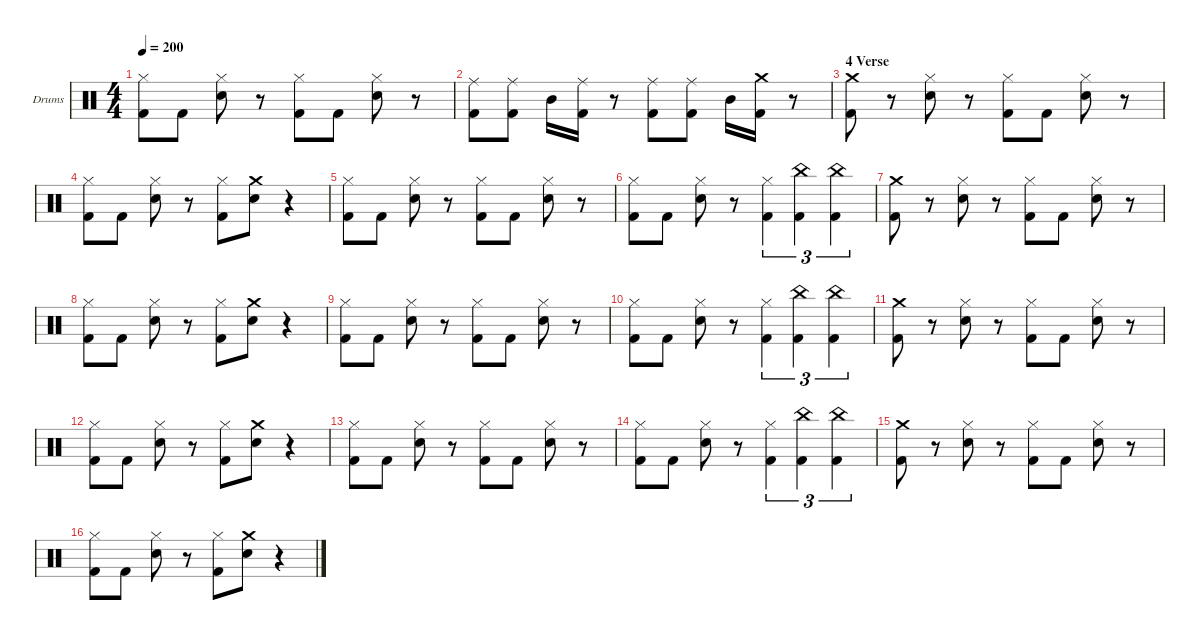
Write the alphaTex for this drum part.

\hideDynamics
\bracketExtendMode nobrackets
\firstSystemTrackNameOrientation horizontal
\otherSystemsTrackNameOrientation horizontal
\track ("Drumkit" "Drums") {instrument percussion}
\staff {score}
\articulation defaults
\ts (4 4)
\tempo 200
\clef neutral
\ks c
("Kick (hit) 2" "Hi-Hat (closed)").8{dy f} "Kick (hit) 2".8 ("Snare (hit) 2" "Hi-Hat (closed)").8 r.8 ("Kick (hit) 2" "Hi-Hat (closed)").8 "Kick (hit) 2".8 ("Snare (hit) 2" "Hi-Hat (closed)").8 r.8 |
("Kick (hit) 2" "Ride (middle)").8 ("Kick (hit) 2" "Ride (middle)").8 "Mid Tom (hit)".16 ("Ride (middle)" "Kick (hit) 2").16 r.8 ("Ride (middle)" "Kick (hit) 2").8 ("Ride (middle)" "Kick (hit) 2").8 "Mid Tom (hit)".16 ("Crash medium (hit)" "Kick (hit) 2").16 r.8 |
\section ("" "4 Verse")
("Kick (hit) 2" "Crash medium (hit)").8 r.8 ("Hi-Hat (closed)" "Snare (hit) 2").8 r.8 ("Hi-Hat (closed)" "Kick (hit) 2").8 "Kick (hit) 2".8 ("Hi-Hat (closed)" "Snare (hit) 2").8 r.8 |
("Kick (hit) 2" "Hi-Hat (closed)").8 "Kick (hit) 2".8 ("Snare (hit) 2" "Hi-Hat (closed)").8 r.8 ("Hi-Hat (closed)" "Kick (hit) 2").8 ("Crash medium (hit)" "Snare (hit) 2").8 r.4 |
("Kick (hit) 2" "Hi-Hat (closed)").8 "Kick (hit) 2".8 ("Snare (hit) 2" "Hi-Hat (closed)").8 r.8 ("Kick (hit) 2" "Hi-Hat (closed)").8 "Kick (hit) 2".8 ("Snare (hit) 2" "Hi-Hat (closed)").8 r.8 |
("Kick (hit) 2" "Hi-Hat (closed)").8 "Kick (hit) 2".8 ("Snare (hit) 2" "Hi-Hat (closed)").8 r.8 ("Hi-Hat (closed)" "Kick (hit) 2").4{tu (3 2)} ("China (hit)" "Kick (hit) 2").4{tu (3 2)} ("China (hit)" "Kick (hit) 2").4{tu (3 2)} |
("Kick (hit) 2" "Crash medium (hit)").8 r.8 ("Hi-Hat (closed)" "Snare (hit) 2").8 r.8 ("Hi-Hat (closed)" "Kick (hit) 2").8 "Kick (hit) 2".8 ("Hi-Hat (closed)" "Snare (hit) 2").8 r.8 |
("Kick (hit) 2" "Hi-Hat (closed)").8 "Kick (hit) 2".8 ("Snare (hit) 2" "Hi-Hat (closed)").8 r.8 ("Hi-Hat (closed)" "Kick (hit) 2").8 ("Crash medium (hit)" "Snare (hit) 2").8 r.4 |
("Kick (hit) 2" "Hi-Hat (closed)").8 "Kick (hit) 2".8 ("Snare (hit) 2" "Hi-Hat (closed)").8 r.8 ("Kick (hit) 2" "Hi-Hat (closed)").8 "Kick (hit) 2".8 ("Snare (hit) 2" "Hi-Hat (closed)").8 r.8 |
("Kick (hit) 2" "Hi-Hat (closed)").8 "Kick (hit) 2".8 ("Snare (hit) 2" "Hi-Hat (closed)").8 r.8 ("Hi-Hat (closed)" "Kick (hit) 2").4{tu (3 2)} ("China (hit)" "Kick (hit) 2").4{tu (3 2)} ("China (hit)" "Kick (hit) 2").4{tu (3 2)} |
("Kick (hit) 2" "Crash medium (hit)").8 r.8 ("Hi-Hat (closed)" "Snare (hit) 2").8 r.8 ("Hi-Hat (closed)" "Kick (hit) 2").8 "Kick (hit) 2".8 ("Hi-Hat (closed)" "Snare (hit) 2").8 r.8 |
("Kick (hit) 2" "Hi-Hat (closed)").8 "Kick (hit) 2".8 ("Snare (hit) 2" "Hi-Hat (closed)").8 r.8 ("Hi-Hat (closed)" "Kick (hit) 2").8 ("Crash medium (hit)" "Snare (hit) 2").8 r.4 |
("Kick (hit) 2" "Hi-Hat (closed)").8 "Kick (hit) 2".8 ("Snare (hit) 2" "Hi-Hat (closed)").8 r.8 ("Kick (hit) 2" "Hi-Hat (closed)").8 "Kick (hit) 2".8 ("Snare (hit) 2" "Hi-Hat (closed)").8 r.8 |
("Kick (hit) 2" "Hi-Hat (closed)").8 "Kick (hit) 2".8 ("Snare (hit) 2" "Hi-Hat (closed)").8 r.8 ("Hi-Hat (closed)" "Kick (hit) 2").4{tu (3 2)} ("China (hit)" "Kick (hit) 2").4{tu (3 2)} ("China (hit)" "Kick (hit) 2").4{tu (3 2)} |
("Kick (hit) 2" "Crash medium (hit)").8 r.8 ("Hi-Hat (closed)" "Snare (hit) 2").8 r.8 ("Hi-Hat (closed)" "Kick (hit) 2").8 "Kick (hit) 2".8 ("Hi-Hat (closed)" "Snare (hit) 2").8 r.8 |
("Kick (hit) 2" "Hi-Hat (closed)").8 "Kick (hit) 2".8 ("Snare (hit) 2" "Hi-Hat (closed)").8 r.8 ("Hi-Hat (closed)" "Kick (hit) 2").8 ("Crash medium (hit)" "Snare (hit) 2").8 r.4
